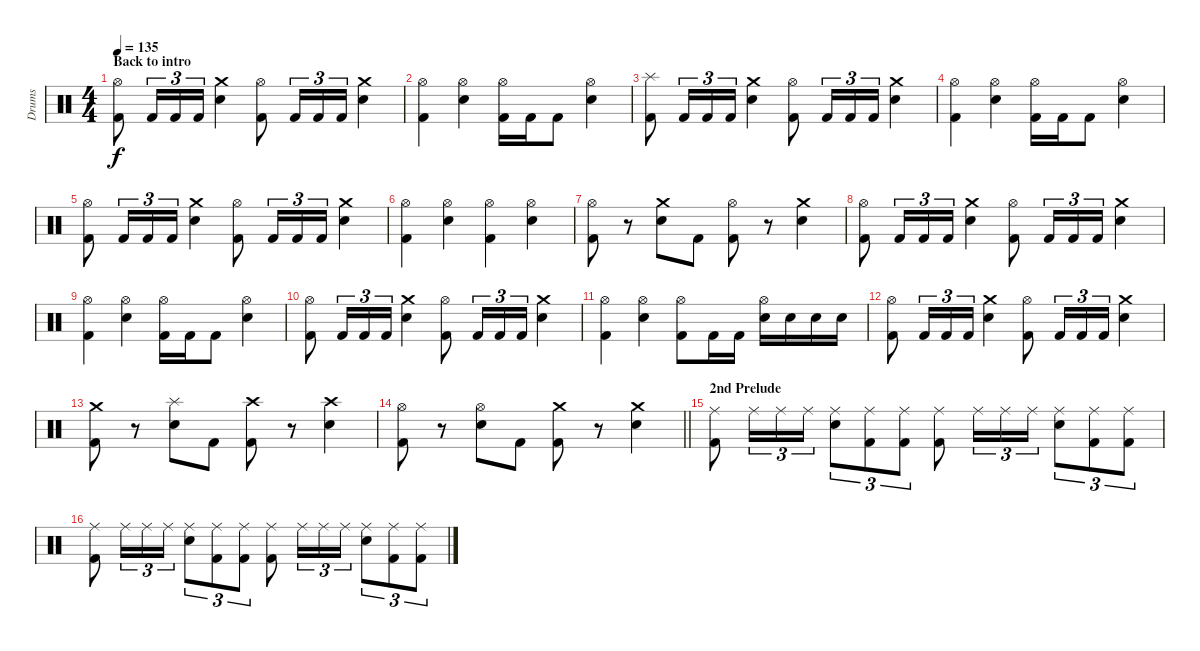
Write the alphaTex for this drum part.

\track ("Drums" "Drums") {instrument percussion}
\staff {score}
\articulation defaults
\ts (4 4)
\section ("" "Back to intro")
\tempo 135
\clef neutral
\ks c
("Hi-Hat (open)" "Kick (hit) 2").8{dy f} "Kick (hit) 2".16{tu (3 2)} "Kick (hit) 2".16{tu (3 2)} "Kick (hit) 2".16{tu (3 2)} ("Crash medium (hit)" "Electric Snare (hit)").4 ("Hi-Hat (open)" "Kick (hit) 2").8 "Kick (hit) 2".16{tu (3 2)} "Kick (hit) 2".16{tu (3 2)} "Kick (hit) 2".16{tu (3 2)} ("Crash medium (hit)" "Electric Snare (hit)").4 |
("Hi-Hat (open)" "Kick (hit) 2").4 ("Hi-Hat (open)" "Electric Snare (hit)").4 ("Hi-Hat (open)" "Kick (hit) 2").16 "Kick (hit) 2".16 "Kick (hit) 2".8 ("Hi-Hat (open)" "Electric Snare (hit)").4 |
("Splash (hit)" "Kick (hit) 2").8 "Kick (hit) 2".16{tu (3 2)} "Kick (hit) 2".16{tu (3 2)} "Kick (hit) 2".16{tu (3 2)} ("Crash medium (hit)" "Electric Snare (hit)").4 ("Hi-Hat (open)" "Kick (hit) 2").8 "Kick (hit) 2".16{tu (3 2)} "Kick (hit) 2".16{tu (3 2)} "Kick (hit) 2".16{tu (3 2)} ("Crash medium (hit)" "Electric Snare (hit)").4 |
("Hi-Hat (open)" "Kick (hit) 2").4 ("Hi-Hat (open)" "Electric Snare (hit)").4 ("Hi-Hat (open)" "Kick (hit) 2").16 "Kick (hit) 2".16 "Kick (hit) 2".8 ("Hi-Hat (open)" "Electric Snare (hit)").4 |
("Hi-Hat (open)" "Kick (hit) 2").8 "Kick (hit) 2".16{tu (3 2)} "Kick (hit) 2".16{tu (3 2)} "Kick (hit) 2".16{tu (3 2)} ("Crash medium (hit)" "Electric Snare (hit)").4 ("Hi-Hat (open)" "Kick (hit) 2").8 "Kick (hit) 2".16{tu (3 2)} "Kick (hit) 2".16{tu (3 2)} "Kick (hit) 2".16{tu (3 2)} ("Crash medium (hit)" "Electric Snare (hit)").4 |
("Hi-Hat (open)" "Kick (hit) 2").4 ("Hi-Hat (open)" "Electric Snare (hit)").4 ("Hi-Hat (open)" "Kick (hit) 2").4 ("Hi-Hat (open)" "Electric Snare (hit)").4 |
("Hi-Hat (open)" "Kick (hit) 2").8 r.8 ("Crash medium (hit)" "Electric Snare (hit)").8 "Kick (hit) 2".8 ("Hi-Hat (open)" "Kick (hit) 2").8 r.8 ("Crash medium (hit)" "Electric Snare (hit)").4 |
("Hi-Hat (open)" "Kick (hit) 2").8 "Kick (hit) 2".16{tu (3 2)} "Kick (hit) 2".16{tu (3 2)} "Kick (hit) 2".16{tu (3 2)} ("Crash medium (hit)" "Electric Snare (hit)").4 ("Hi-Hat (open)" "Kick (hit) 2").8 "Kick (hit) 2".16{tu (3 2)} "Kick (hit) 2".16{tu (3 2)} "Kick (hit) 2".16{tu (3 2)} ("Crash medium (hit)" "Electric Snare (hit)").4 |
("Hi-Hat (open)" "Kick (hit) 2").4 ("Hi-Hat (open)" "Electric Snare (hit)").4 ("Hi-Hat (open)" "Kick (hit) 2").16 "Kick (hit) 2".16 "Kick (hit) 2".8 ("Hi-Hat (open)" "Electric Snare (hit)").4 |
("Hi-Hat (open)" "Kick (hit) 2").8 "Kick (hit) 2".16{tu (3 2)} "Kick (hit) 2".16{tu (3 2)} "Kick (hit) 2".16{tu (3 2)} ("Crash medium (hit)" "Electric Snare (hit)").4 ("Hi-Hat (open)" "Kick (hit) 2").8 "Kick (hit) 2".16{tu (3 2)} "Kick (hit) 2".16{tu (3 2)} "Kick (hit) 2".16{tu (3 2)} ("Crash medium (hit)" "Electric Snare (hit)").4 |
("Hi-Hat (open)" "Kick (hit) 2").4 ("Hi-Hat (open)" "Electric Snare (hit)").4 ("Hi-Hat (open)" "Kick (hit) 2").8 "Kick (hit) 2".16 "Kick (hit) 2".16 ("Hi-Hat (open)" "Electric Snare (hit)").16 "Electric Snare (hit)".16 "Electric Snare (hit)".16 "Electric Snare (hit)".16 |
("Hi-Hat (open)" "Kick (hit) 2").8 "Kick (hit) 2".16{tu (3 2)} "Kick (hit) 2".16{tu (3 2)} "Kick (hit) 2".16{tu (3 2)} ("Crash medium (hit)" "Electric Snare (hit)").4 ("Hi-Hat (open)" "Kick (hit) 2").8 "Kick (hit) 2".16{tu (3 2)} "Kick (hit) 2".16{tu (3 2)} "Kick (hit) 2".16{tu (3 2)} ("Crash medium (hit)" "Electric Snare (hit)").4 |
("Crash medium (hit)" "Kick (hit) 2").8 r.8 ("Splash (hit)" "Electric Snare (hit)").8 "Kick (hit) 2".8 ("Crash high (hit)" "Kick (hit) 2").8 r.8 ("Crash high (hit)" "Electric Snare (hit)").4 |
\barLineRight lightlight
("Hi-Hat (open)" "Kick (hit) 2").8 r.8 ("Hi-Hat (open)" "Electric Snare (hit)").8 "Kick (hit) 2".8 ("Crash medium (hit)" "Kick (hit) 2").8 r.8 ("Crash medium (hit)" "Electric Snare (hit)").4 |
\section ("" "2nd Prelude")
("Ride (middle)" "Kick (hit) 2").8 "Ride (middle)".16{tu (3 2)} "Ride (middle)".16{tu (3 2)} "Ride (middle)".16{tu (3 2)} ("Ride (middle)" "Electric Snare (hit)").8{tu (3 2)} ("Ride (middle)" "Kick (hit) 2").8{tu (3 2)} ("Ride (middle)" "Kick (hit) 2").8{tu (3 2)} ("Ride (middle)" "Kick (hit) 2").8 "Ride (middle)".16{tu (3 2)} "Ride (middle)".16{tu (3 2)} "Ride (middle)".16{tu (3 2)} ("Ride (middle)" "Electric Snare (hit)").8{tu (3 2)} ("Ride (middle)" "Kick (hit) 2").8{tu (3 2)} ("Ride (middle)" "Kick (hit) 2").8{tu (3 2)} |
("Ride (middle)" "Kick (hit) 2").8 "Ride (middle)".16{tu (3 2)} "Ride (middle)".16{tu (3 2)} "Ride (middle)".16{tu (3 2)} ("Ride (middle)" "Electric Snare (hit)").8{tu (3 2)} ("Ride (middle)" "Kick (hit) 2").8{tu (3 2)} ("Ride (middle)" "Kick (hit) 2").8{tu (3 2)} ("Ride (middle)" "Kick (hit) 2").8 "Ride (middle)".16{tu (3 2)} "Ride (middle)".16{tu (3 2)} "Ride (middle)".16{tu (3 2)} ("Ride (middle)" "Electric Snare (hit)").8{tu (3 2)} ("Ride (middle)" "Kick (hit) 2").8{tu (3 2)} ("Ride (middle)" "Kick (hit) 2").8{tu (3 2)}
